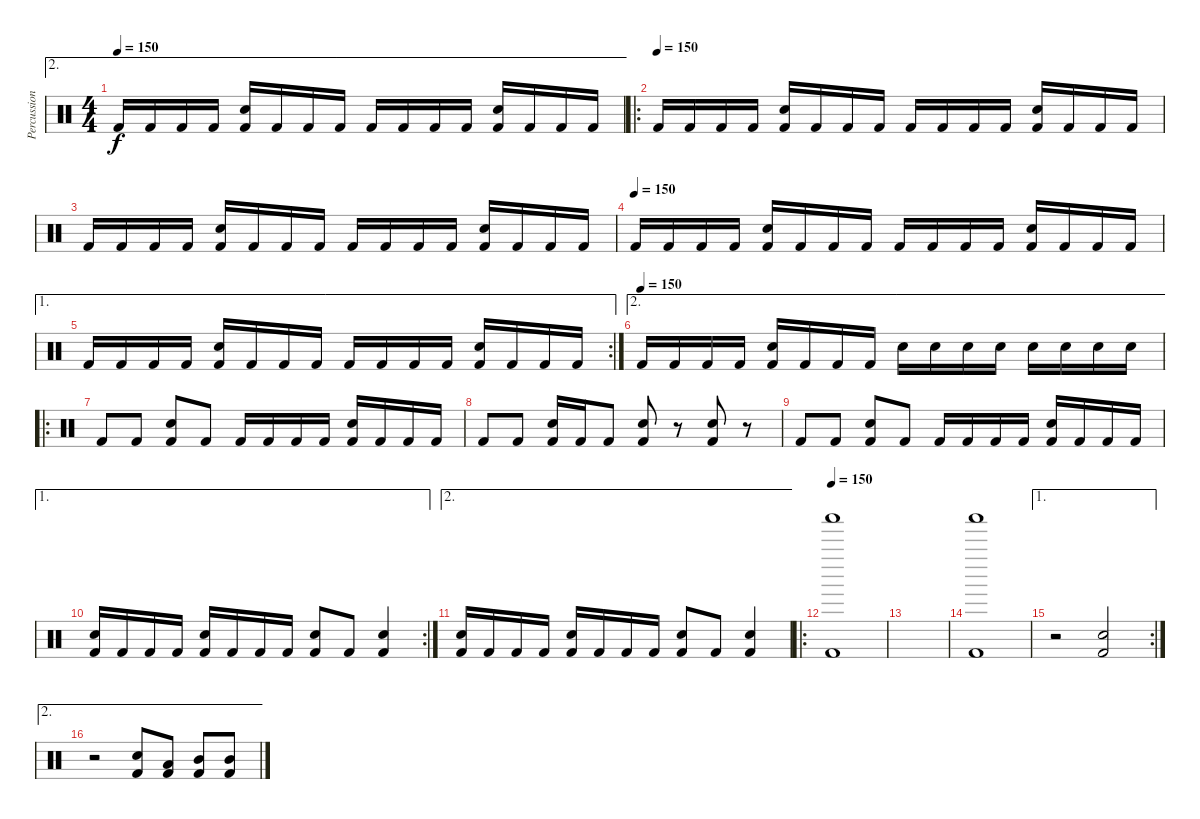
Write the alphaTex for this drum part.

\track ("Percussion" "Percussion") {instrument percussion}
\staff {score}
\articulation defaults
\ae 2
\ts (4 4)
\tempo 150
\clef neutral
\ks c "Kick (hit) 2".16{dy f} "Kick (hit) 2".16 "Kick (hit) 2".16 "Kick (hit) 2".16
("Snare (hit) 2" "Kick (hit) 2").16 "Kick (hit) 2".16 "Kick (hit) 2".16 "Kick (hit) 2".16 "Kick (hit) 2".16 "Kick (hit) 2".16 "Kick (hit) 2".16 "Kick (hit) 2".16 ("Snare (hit) 2" "Kick (hit) 2").16 "Kick (hit) 2".16 "Kick (hit) 2".16 "Kick (hit) 2".16 |
\ro
\tempo (150)
"Kick (hit) 2".16 "Kick (hit) 2".16 "Kick (hit) 2".16 "Kick (hit) 2".16 ("Snare (hit) 2" "Kick (hit) 2").16 "Kick (hit) 2".16 "Kick (hit) 2".16 "Kick (hit) 2".16 "Kick (hit) 2".16 "Kick (hit) 2".16 "Kick (hit) 2".16 "Kick (hit) 2".16 ("Snare (hit) 2" "Kick (hit) 2").16 "Kick (hit) 2".16 "Kick (hit) 2".16 "Kick (hit) 2".16 |
"Kick (hit) 2".16 "Kick (hit) 2".16 "Kick (hit) 2".16 "Kick (hit) 2".16 ("Snare (hit) 2" "Kick (hit) 2").16 "Kick (hit) 2".16 "Kick (hit) 2".16 "Kick (hit) 2".16 "Kick (hit) 2".16 "Kick (hit) 2".16 "Kick (hit) 2".16 "Kick (hit) 2".16 ("Snare (hit) 2" "Kick (hit) 2").16 "Kick (hit) 2".16 "Kick (hit) 2".16 "Kick (hit) 2".16 |
\tempo (150)
"Kick (hit) 2".16 "Kick (hit) 2".16 "Kick (hit) 2".16 "Kick (hit) 2".16 ("Snare (hit) 2" "Kick (hit) 2").16 "Kick (hit) 2".16 "Kick (hit) 2".16 "Kick (hit) 2".16 "Kick (hit) 2".16 "Kick (hit) 2".16 "Kick (hit) 2".16 "Kick (hit) 2".16 ("Snare (hit) 2" "Kick (hit) 2").16 "Kick (hit) 2".16 "Kick (hit) 2".16 "Kick (hit) 2".16 |
\ae 1
\rc 2 "Kick (hit) 2".16 "Kick (hit) 2".16 "Kick (hit) 2".16 "Kick (hit) 2".16
("Snare (hit) 2" "Kick (hit) 2").16 "Kick (hit) 2".16 "Kick (hit) 2".16 "Kick (hit) 2".16 "Kick (hit) 2".16 "Kick (hit) 2".16 "Kick (hit) 2".16 "Kick (hit) 2".16 ("Snare (hit) 2" "Kick (hit) 2").16 "Kick (hit) 2".16 "Kick (hit) 2".16 "Kick (hit) 2".16 |
\ae 2
\tempo (150)
"Kick (hit) 2".16 "Kick (hit) 2".16 "Kick (hit) 2".16 "Kick (hit) 2".16 ("Snare (hit) 2" "Kick (hit) 2").16 "Kick (hit) 2".16 "Kick (hit) 2".16 "Kick (hit) 2".16 "Snare (hit) 2".16 "Snare (hit) 2".16 "Snare (hit) 2".16 "Snare (hit) 2".16 "Snare (hit) 2".16 "Snare (hit) 2".16 "Snare (hit) 2".16 "Snare (hit) 2".16 |
\ro "Kick (hit) 2".8 "Kick (hit) 2".8
("Snare (hit) 2" "Kick (hit) 2").8 "Kick (hit) 2".8 "Kick (hit) 2".16 "Kick (hit) 2".16 "Kick (hit) 2".16 "Kick (hit) 2".16 ("Snare (hit) 2" "Kick (hit) 2").16 "Kick (hit) 2".16 "Kick (hit) 2".16 "Kick (hit) 2".16 |
"Kick (hit) 2".8 "Kick (hit) 2".8 ("Snare (hit) 2" "Kick (hit) 2").16 "Kick (hit) 2".16 "Kick (hit) 2".8 ("Snare (hit) 2" "Kick (hit) 2").8 r.8 ("Snare (hit) 2" "Kick (hit) 2").8 r.8 |
"Kick (hit) 2".8 "Kick (hit) 2".8 ("Snare (hit) 2" "Kick (hit) 2").8 "Kick (hit) 2".8 "Kick (hit) 2".16 "Kick (hit) 2".16 "Kick (hit) 2".16 "Kick (hit) 2".16 ("Snare (hit) 2" "Kick (hit) 2").16 "Kick (hit) 2".16 "Kick (hit) 2".16 "Kick (hit) 2".16 |
\ae 1
\rc 2
("Snare (hit) 2" "Kick (hit) 2").16 "Kick (hit) 2".16 "Kick (hit) 2".16 "Kick (hit) 2".16 ("Snare (hit) 2" "Kick (hit) 2").16 "Kick (hit) 2".16 "Kick (hit) 2".16 "Kick (hit) 2".16 ("Snare (hit) 2" "Kick (hit) 2").8 "Kick (hit) 2".8 ("Snare (hit) 2" "Kick (hit) 2").4 |
\ae 2
("Snare (hit) 2" "Kick (hit) 2").16 "Kick (hit) 2".16 "Kick (hit) 2".16 "Kick (hit) 2".16 ("Snare (hit) 2" "Kick (hit) 2").16 "Kick (hit) 2".16 "Kick (hit) 2".16 "Kick (hit) 2".16 ("Snare (hit) 2" "Kick (hit) 2").8 "Kick (hit) 2".8 ("Snare (hit) 2" "Kick (hit) 2").4 |
\ro
\tempo 150
("Shaker (hit)" "Kick (hit) 2").1 |
|
("Shaker (hit)" "Kick (hit) 2").1 |
\ae 1
\rc 2
r.2 ("Snare (hit) 2" "Kick (hit) 2").2 |
\ae 2
r.2 ("Snare (hit) 2" "Kick (hit) 2").8 ("Low Tom (hit)" "Kick (hit) 2").8 ("Mid Tom (hit)" "Kick (hit) 2").8 ("Mid Tom (hit)" "Kick (hit) 2").8
